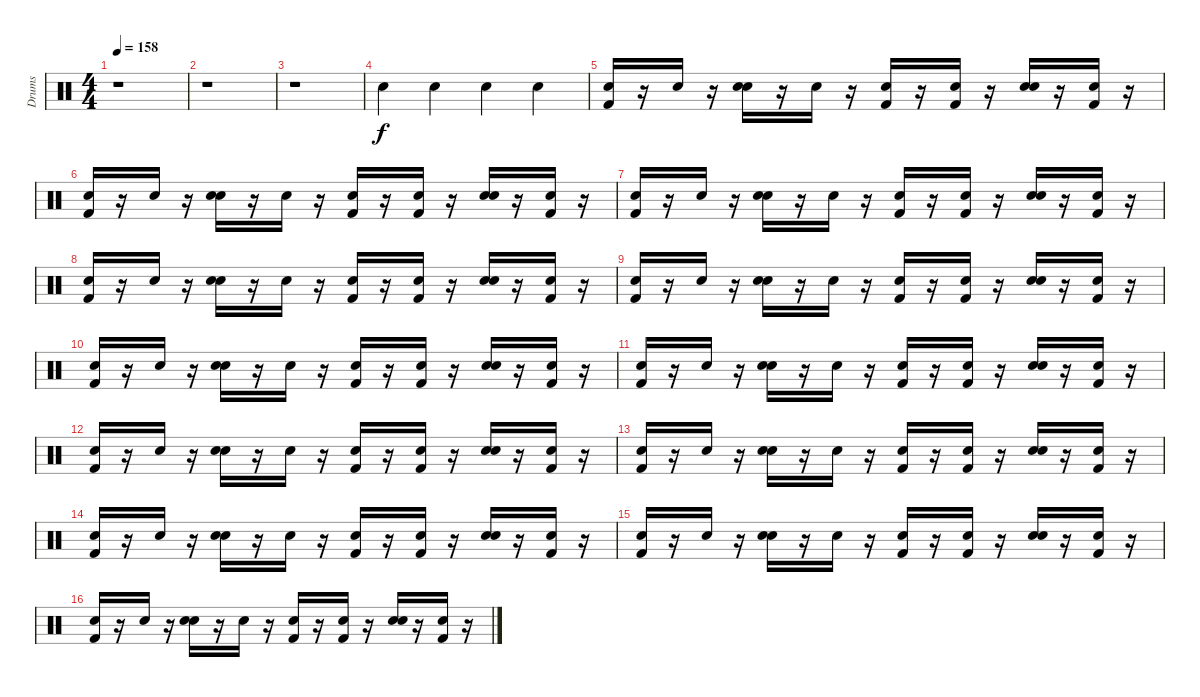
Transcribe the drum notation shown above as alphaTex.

\track ("Drums" "Drums") {instrument percussion}
\staff {score}
\articulation defaults
\ts (4 4)
\tempo 158
\clef neutral
\ks c
r.1{dy f} |
r.1 |
r.1 |
"Snare (hit) 2".4 "Snare (hit) 2".4 "Snare (hit) 2".4 "Snare (hit) 2".4 |
("Snare (hit) 2" "Kick (hit) 2").16 r.16 "Snare (hit) 2".16 r.16 ("Snare (hit) 2" "Electric Snare (hit)").16 r.16 "Snare (hit) 2".16 r.16 ("Snare (hit) 2" "Kick (hit) 2").16 r.16 ("Snare (hit) 2" "Kick (hit) 2").16 r.16 ("Snare (hit) 2" "Electric Snare (hit)").16 r.16 ("Snare (hit) 2" "Kick (hit) 2").16 r.16 |
("Snare (hit) 2" "Kick (hit) 2").16 r.16 "Snare (hit) 2".16 r.16 ("Snare (hit) 2" "Electric Snare (hit)").16 r.16 "Snare (hit) 2".16 r.16 ("Snare (hit) 2" "Kick (hit) 2").16 r.16 ("Snare (hit) 2" "Kick (hit) 2").16 r.16 ("Snare (hit) 2" "Electric Snare (hit)").16 r.16 ("Snare (hit) 2" "Kick (hit) 2").16 r.16 |
("Snare (hit) 2" "Kick (hit) 2").16 r.16 "Snare (hit) 2".16 r.16 ("Snare (hit) 2" "Electric Snare (hit)").16 r.16 "Snare (hit) 2".16 r.16 ("Snare (hit) 2" "Kick (hit) 2").16 r.16 ("Snare (hit) 2" "Kick (hit) 2").16 r.16 ("Snare (hit) 2" "Electric Snare (hit)").16 r.16 ("Snare (hit) 2" "Kick (hit) 2").16 r.16 |
("Snare (hit) 2" "Kick (hit) 2").16 r.16 "Snare (hit) 2".16 r.16 ("Snare (hit) 2" "Electric Snare (hit)").16 r.16 "Snare (hit) 2".16 r.16 ("Snare (hit) 2" "Kick (hit) 2").16 r.16 ("Snare (hit) 2" "Kick (hit) 2").16 r.16 ("Snare (hit) 2" "Electric Snare (hit)").16 r.16 ("Snare (hit) 2" "Kick (hit) 2").16 r.16 |
("Snare (hit) 2" "Kick (hit) 2").16 r.16 "Snare (hit) 2".16 r.16 ("Snare (hit) 2" "Electric Snare (hit)").16 r.16 "Snare (hit) 2".16 r.16 ("Snare (hit) 2" "Kick (hit) 2").16 r.16 ("Snare (hit) 2" "Kick (hit) 2").16 r.16 ("Snare (hit) 2" "Electric Snare (hit)").16 r.16 ("Snare (hit) 2" "Kick (hit) 2").16 r.16 |
("Snare (hit) 2" "Kick (hit) 2").16 r.16 "Snare (hit) 2".16 r.16 ("Snare (hit) 2" "Electric Snare (hit)").16 r.16 "Snare (hit) 2".16 r.16 ("Snare (hit) 2" "Kick (hit) 2").16 r.16 ("Snare (hit) 2" "Kick (hit) 2").16 r.16 ("Snare (hit) 2" "Electric Snare (hit)").16 r.16 ("Snare (hit) 2" "Kick (hit) 2").16 r.16 |
("Snare (hit) 2" "Kick (hit) 2").16 r.16 "Snare (hit) 2".16 r.16 ("Snare (hit) 2" "Electric Snare (hit)").16 r.16 "Snare (hit) 2".16 r.16 ("Snare (hit) 2" "Kick (hit) 2").16 r.16 ("Snare (hit) 2" "Kick (hit) 2").16 r.16 ("Snare (hit) 2" "Electric Snare (hit)").16 r.16 ("Snare (hit) 2" "Kick (hit) 2").16 r.16 |
("Snare (hit) 2" "Kick (hit) 2").16 r.16 "Snare (hit) 2".16 r.16 ("Snare (hit) 2" "Electric Snare (hit)").16 r.16 "Snare (hit) 2".16 r.16 ("Snare (hit) 2" "Kick (hit) 2").16 r.16 ("Snare (hit) 2" "Kick (hit) 2").16 r.16 ("Snare (hit) 2" "Electric Snare (hit)").16 r.16 ("Snare (hit) 2" "Kick (hit) 2").16 r.16 |
("Snare (hit) 2" "Kick (hit) 2").16 r.16 "Snare (hit) 2".16 r.16 ("Snare (hit) 2" "Electric Snare (hit)").16 r.16 "Snare (hit) 2".16 r.16 ("Snare (hit) 2" "Kick (hit) 2").16 r.16 ("Snare (hit) 2" "Kick (hit) 2").16 r.16 ("Snare (hit) 2" "Electric Snare (hit)").16 r.16 ("Snare (hit) 2" "Kick (hit) 2").16 r.16 |
("Snare (hit) 2" "Kick (hit) 2").16 r.16 "Snare (hit) 2".16 r.16 ("Snare (hit) 2" "Electric Snare (hit)").16 r.16 "Snare (hit) 2".16 r.16 ("Snare (hit) 2" "Kick (hit) 2").16 r.16 ("Snare (hit) 2" "Kick (hit) 2").16 r.16 ("Snare (hit) 2" "Electric Snare (hit)").16 r.16 ("Snare (hit) 2" "Kick (hit) 2").16 r.16 |
("Snare (hit) 2" "Kick (hit) 2").16 r.16 "Snare (hit) 2".16 r.16 ("Snare (hit) 2" "Electric Snare (hit)").16 r.16 "Snare (hit) 2".16 r.16 ("Snare (hit) 2" "Kick (hit) 2").16 r.16 ("Snare (hit) 2" "Kick (hit) 2").16 r.16 ("Snare (hit) 2" "Electric Snare (hit)").16 r.16 ("Snare (hit) 2" "Kick (hit) 2").16 r.16 |
("Snare (hit) 2" "Kick (hit) 2").16 r.16 "Snare (hit) 2".16 r.16 ("Snare (hit) 2" "Electric Snare (hit)").16 r.16 "Snare (hit) 2".16 r.16 ("Snare (hit) 2" "Kick (hit) 2").16 r.16 ("Snare (hit) 2" "Kick (hit) 2").16 r.16 ("Snare (hit) 2" "Electric Snare (hit)").16 r.16 ("Snare (hit) 2" "Kick (hit) 2").16 r.16
